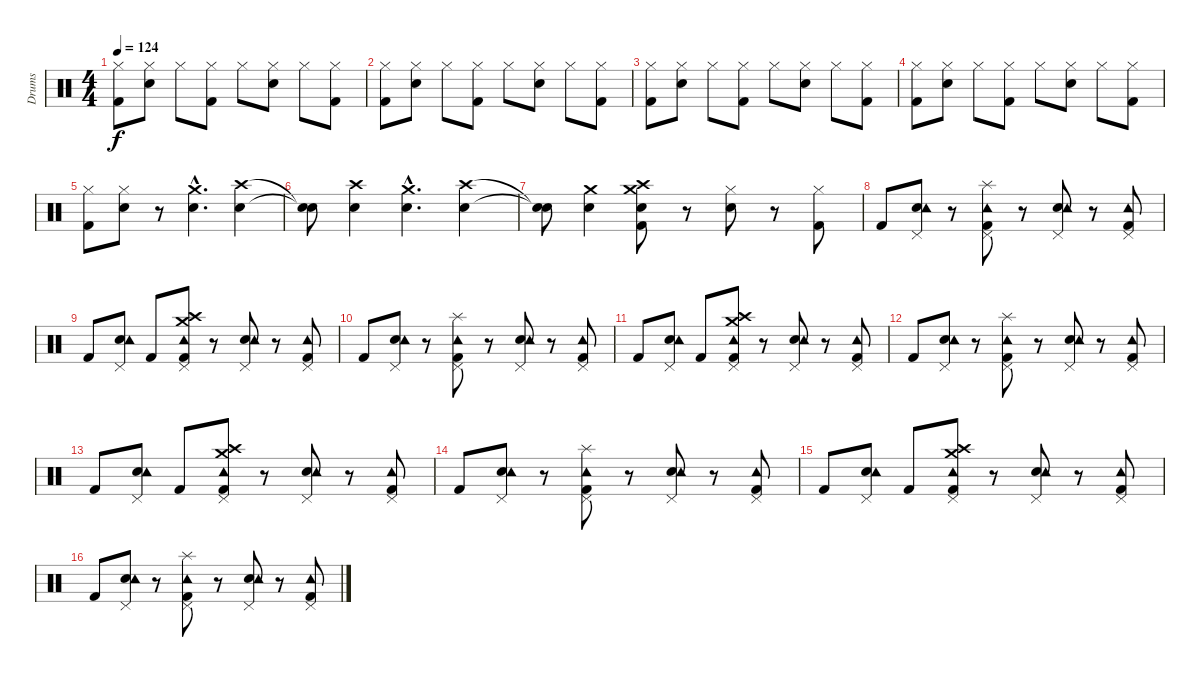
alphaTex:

\track ("Drums" "Drums") {instrument percussion}
\staff {score}
\articulation defaults
\ts (4 4)
\tempo 124
\clef neutral
\ks c
("Kick (hit) 2" "Hi-Hat (closed)").8{dy f} ("Snare (hit) 2" "Hi-Hat (closed)").8 "Hi-Hat (closed)".8 ("Kick (hit) 2" "Hi-Hat (closed)").8 "Hi-Hat (closed)".8 ("Snare (hit) 2" "Hi-Hat (closed)").8 "Hi-Hat (closed)".8 ("Kick (hit) 2" "Hi-Hat (closed)").8 |
("Kick (hit) 2" "Hi-Hat (closed)").8 ("Snare (hit) 2" "Hi-Hat (closed)").8 "Hi-Hat (closed)".8 ("Kick (hit) 2" "Hi-Hat (closed)").8 "Hi-Hat (closed)".8 ("Snare (hit) 2" "Hi-Hat (closed)").8 "Hi-Hat (closed)".8 ("Kick (hit) 2" "Hi-Hat (closed)").8 |
("Kick (hit) 2" "Hi-Hat (closed)").8 ("Snare (hit) 2" "Hi-Hat (closed)").8 "Hi-Hat (closed)".8 ("Kick (hit) 2" "Hi-Hat (closed)").8 "Hi-Hat (closed)".8 ("Snare (hit) 2" "Hi-Hat (closed)").8 "Hi-Hat (closed)".8 ("Kick (hit) 2" "Hi-Hat (closed)").8 |
("Kick (hit) 2" "Hi-Hat (closed)").8 ("Snare (hit) 2" "Hi-Hat (closed)").8 "Hi-Hat (closed)".8 ("Kick (hit) 2" "Hi-Hat (closed)").8 "Hi-Hat (closed)".8 ("Snare (hit) 2" "Hi-Hat (closed)").8 "Hi-Hat (closed)".8 ("Kick (hit) 2" "Hi-Hat (closed)").8 |
("Kick (hit) 2" "Hi-Hat (closed)").8 ("Snare (hit) 2" "Hi-Hat (closed)").8 r.8 ("Snare (hit) 2"{hac} "Crash medium (hit)"{hac}).4{d} ("Snare (hit) 2" "Crash high (hit)").4 |
("Snare (hit)"{t} "Snare (hit)"{t}).8 ("Snare (hit) 2" "Crash high (hit)").4 ("Snare (hit) 2"{hac} "Crash medium (hit)"{hac}).4{d} ("Snare (hit) 2" "Crash high (hit)").4 |
("Snare (hit)"{t} "Snare (hit)"{t}).8 ("Snare (hit) 2" "Crash medium (hit)").4 ("Kick (hit) 2" "Snare (hit) 2" "Crash high (hit)" "Crash medium (hit)").8 r.8 ("Snare (hit) 2" "Hi-Hat (closed)").8 r.8 ("Kick (hit) 2" "Hi-Hat (closed)").8 |
"Kick (hit) 2".8 ("Snare (hit) 2" "Tambourine (hit)" "Pedal Hi-Hat (hit)").8 r.8 ("Kick (hit) 2" "Tambourine (hit)" "Pedal Hi-Hat (hit)" "Splash (hit)").8 r.8 ("Snare (hit) 2" "Tambourine (hit)" "Pedal Hi-Hat (hit)").8 r.8 ("Kick (hit) 2" "Tambourine (hit)" "Pedal Hi-Hat (hit)").8 |
"Kick (hit) 2".8 ("Snare (hit) 2" "Tambourine (hit)" "Pedal Hi-Hat (hit)").8 "Kick (hit) 2".8 ("Kick (hit) 2" "Tambourine (hit)" "Pedal Hi-Hat (hit)" "Crash high (hit)" "Crash medium (hit)").8 r.8 ("Snare (hit) 2" "Tambourine (hit)" "Pedal Hi-Hat (hit)").8 r.8 ("Kick (hit) 2" "Tambourine (hit)" "Pedal Hi-Hat (hit)").8 |
"Kick (hit) 2".8 ("Snare (hit) 2" "Tambourine (hit)" "Pedal Hi-Hat (hit)").8 r.8 ("Kick (hit) 2" "Tambourine (hit)" "Pedal Hi-Hat (hit)" "Splash (hit)").8 r.8 ("Snare (hit) 2" "Tambourine (hit)" "Pedal Hi-Hat (hit)").8 r.8 ("Kick (hit) 2" "Tambourine (hit)" "Pedal Hi-Hat (hit)").8 |
"Kick (hit) 2".8 ("Snare (hit) 2" "Tambourine (hit)" "Pedal Hi-Hat (hit)").8 "Kick (hit) 2".8 ("Kick (hit) 2" "Tambourine (hit)" "Pedal Hi-Hat (hit)" "Crash high (hit)" "Crash medium (hit)").8 r.8 ("Snare (hit) 2" "Tambourine (hit)" "Pedal Hi-Hat (hit)").8 r.8 ("Kick (hit) 2" "Tambourine (hit)" "Pedal Hi-Hat (hit)").8 |
"Kick (hit) 2".8 ("Snare (hit) 2" "Tambourine (hit)" "Pedal Hi-Hat (hit)").8 r.8 ("Kick (hit) 2" "Tambourine (hit)" "Pedal Hi-Hat (hit)" "Splash (hit)").8 r.8 ("Snare (hit) 2" "Tambourine (hit)" "Pedal Hi-Hat (hit)").8 r.8 ("Kick (hit) 2" "Tambourine (hit)" "Pedal Hi-Hat (hit)").8 |
"Kick (hit) 2".8 ("Snare (hit) 2" "Tambourine (hit)" "Pedal Hi-Hat (hit)").8 "Kick (hit) 2".8 ("Kick (hit) 2" "Tambourine (hit)" "Pedal Hi-Hat (hit)" "Crash high (hit)" "Crash medium (hit)").8 r.8 ("Snare (hit) 2" "Tambourine (hit)" "Pedal Hi-Hat (hit)").8 r.8 ("Kick (hit) 2" "Tambourine (hit)" "Pedal Hi-Hat (hit)").8 |
"Kick (hit) 2".8 ("Snare (hit) 2" "Tambourine (hit)" "Pedal Hi-Hat (hit)").8 r.8 ("Kick (hit) 2" "Tambourine (hit)" "Pedal Hi-Hat (hit)" "Splash (hit)").8 r.8 ("Snare (hit) 2" "Tambourine (hit)" "Pedal Hi-Hat (hit)").8 r.8 ("Kick (hit) 2" "Tambourine (hit)" "Pedal Hi-Hat (hit)").8 |
"Kick (hit) 2".8 ("Snare (hit) 2" "Tambourine (hit)" "Pedal Hi-Hat (hit)").8 "Kick (hit) 2".8 ("Kick (hit) 2" "Tambourine (hit)" "Pedal Hi-Hat (hit)" "Crash high (hit)" "Crash medium (hit)").8 r.8 ("Snare (hit) 2" "Tambourine (hit)" "Pedal Hi-Hat (hit)").8 r.8 ("Kick (hit) 2" "Tambourine (hit)" "Pedal Hi-Hat (hit)").8 |
"Kick (hit) 2".8 ("Snare (hit) 2" "Tambourine (hit)" "Pedal Hi-Hat (hit)").8 r.8 ("Kick (hit) 2" "Tambourine (hit)" "Pedal Hi-Hat (hit)" "Splash (hit)").8 r.8 ("Snare (hit) 2" "Tambourine (hit)" "Pedal Hi-Hat (hit)").8 r.8 ("Kick (hit) 2" "Tambourine (hit)" "Pedal Hi-Hat (hit)").8
